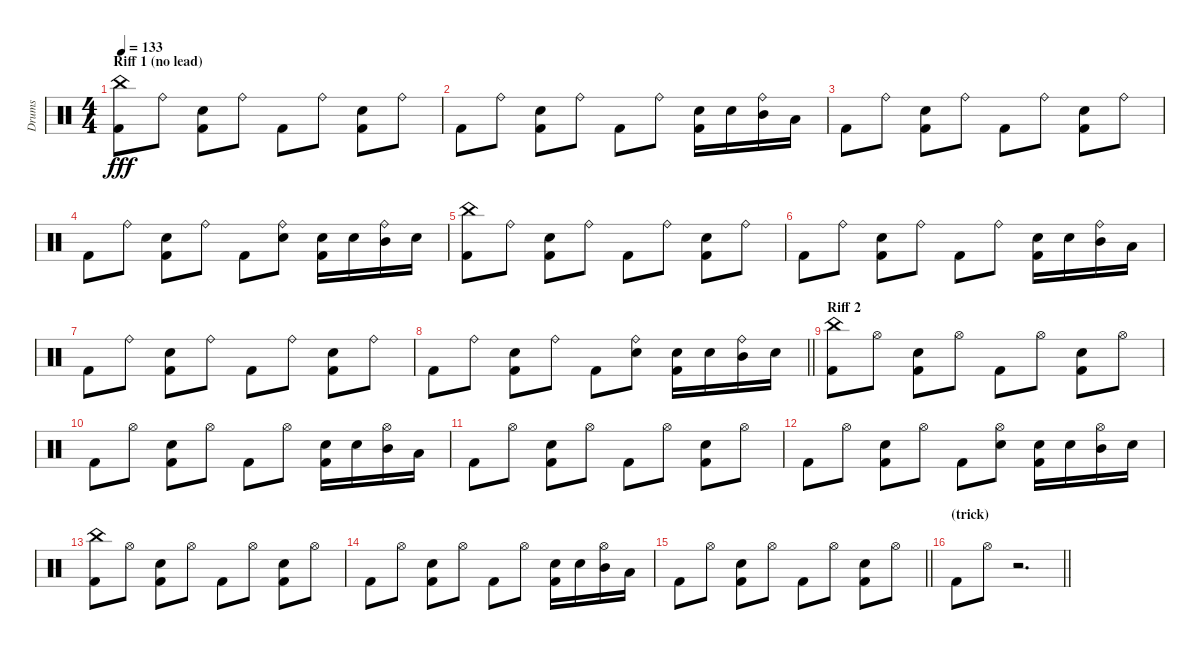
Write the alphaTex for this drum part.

\track ("Drums" "Drums") {instrument percussion}
\staff {score}
\articulation defaults
\ts (4 4)
\section ("" "Riff 1 (no lead)")
\tempo 133
\clef neutral
\ks c
("Kick (hit) 2" "China (hit)").8{dy fff} "Ride (bell)".8 ("Kick (hit) 2" "Snare (hit) 2").8 "Ride (bell)".8 "Kick (hit) 2".8 "Ride (bell)".8 ("Kick (hit) 2" "Snare (hit) 2").8 "Ride (bell)".8 |
"Kick (hit) 2".8 "Ride (bell)".8 ("Kick (hit) 2" "Snare (hit) 2").8 "Ride (bell)".8 "Kick (hit) 2".8 "Ride (bell)".8 ("Kick (hit) 2" "Snare (hit) 2").16 "Snare (hit) 2".16 ("Ride (bell)" "Mid Tom (hit)").16 "Low Tom (hit)".16 |
"Kick (hit) 2".8 "Ride (bell)".8 ("Kick (hit) 2" "Snare (hit) 2").8 "Ride (bell)".8 "Kick (hit) 2".8 "Ride (bell)".8 ("Kick (hit) 2" "Snare (hit) 2").8 "Ride (bell)".8 |
"Kick (hit) 2".8 "Ride (bell)".8 ("Kick (hit) 2" "Snare (hit) 2").8 "Ride (bell)".8 "Kick (hit) 2".8 ("Snare (hit) 2" "Ride (bell)").8 ("Kick (hit) 2" "Snare (hit) 2").16 "Snare (hit) 2".16 ("Ride (bell)" "Mid Tom (hit)").16 "Snare (hit) 2".16 |
("Kick (hit) 2" "China (hit)").8 "Ride (bell)".8 ("Kick (hit) 2" "Snare (hit) 2").8 "Ride (bell)".8 "Kick (hit) 2".8 "Ride (bell)".8 ("Kick (hit) 2" "Snare (hit) 2").8 "Ride (bell)".8 |
"Kick (hit) 2".8 "Ride (bell)".8 ("Kick (hit) 2" "Snare (hit) 2").8 "Ride (bell)".8 "Kick (hit) 2".8 "Ride (bell)".8 ("Kick (hit) 2" "Snare (hit) 2").16 "Snare (hit) 2".16 ("Ride (bell)" "Mid Tom (hit)").16 "Low Tom (hit)".16 |
"Kick (hit) 2".8 "Ride (bell)".8 ("Kick (hit) 2" "Snare (hit) 2").8 "Ride (bell)".8 "Kick (hit) 2".8 "Ride (bell)".8 ("Kick (hit) 2" "Snare (hit) 2").8 "Ride (bell)".8 |
\barLineRight lightlight "Kick (hit) 2".8 "Ride (bell)".8
("Kick (hit) 2" "Snare (hit) 2").8 "Ride (bell)".8 "Kick (hit) 2".8 ("Snare (hit) 2" "Ride (bell)").8 ("Kick (hit) 2" "Snare (hit) 2").16 "Snare (hit) 2".16 ("Ride (bell)" "Mid Tom (hit)").16 "Snare (hit) 2".16 |
\section ("" "Riff 2")
("Kick (hit) 2" "China (hit)").8 "Hi-Hat (open)".8 ("Kick (hit) 2" "Snare (hit) 2").8 "Hi-Hat (open)".8 "Kick (hit) 2".8 "Hi-Hat (open)".8 ("Kick (hit) 2" "Snare (hit) 2").8 "Hi-Hat (open)".8 |
"Kick (hit) 2".8 "Hi-Hat (open)".8 ("Kick (hit) 2" "Snare (hit) 2").8 "Hi-Hat (open)".8 "Kick (hit) 2".8 "Hi-Hat (open)".8 ("Kick (hit) 2" "Snare (hit) 2").16 "Snare (hit) 2".16 ("Hi-Hat (open)" "Mid Tom (hit)").16 "Low Tom (hit)".16 |
"Kick (hit) 2".8 "Hi-Hat (open)".8 ("Kick (hit) 2" "Snare (hit) 2").8 "Hi-Hat (open)".8 "Kick (hit) 2".8 "Hi-Hat (open)".8 ("Kick (hit) 2" "Snare (hit) 2").8 "Hi-Hat (open)".8 |
"Kick (hit) 2".8 "Hi-Hat (open)".8 ("Kick (hit) 2" "Snare (hit) 2").8 "Hi-Hat (open)".8 "Kick (hit) 2".8 ("Snare (hit) 2" "Hi-Hat (open)").8 ("Kick (hit) 2" "Snare (hit) 2").16 "Snare (hit) 2".16 ("Hi-Hat (open)" "Mid Tom (hit)").16 "Snare (hit) 2".16 |
("Kick (hit) 2" "China (hit)").8 "Hi-Hat (open)".8 ("Kick (hit) 2" "Snare (hit) 2").8 "Hi-Hat (open)".8 "Kick (hit) 2".8 "Hi-Hat (open)".8 ("Kick (hit) 2" "Snare (hit) 2").8 "Hi-Hat (open)".8 |
"Kick (hit) 2".8 "Hi-Hat (open)".8 ("Kick (hit) 2" "Snare (hit) 2").8 "Hi-Hat (open)".8 "Kick (hit) 2".8 "Hi-Hat (open)".8 ("Kick (hit) 2" "Snare (hit) 2").16 "Snare (hit) 2".16 ("Hi-Hat (open)" "Mid Tom (hit)").16 "Low Tom (hit)".16 |
\barLineRight lightlight "Kick (hit) 2".8 "Hi-Hat (open)".8
("Kick (hit) 2" "Snare (hit) 2").8 "Hi-Hat (open)".8 "Kick (hit) 2".8 "Hi-Hat (open)".8 ("Kick (hit) 2" "Snare (hit) 2").8 "Hi-Hat (open)".8 |
\section ("" "(trick)")
\barLineRight lightlight "Kick (hit) 2".8 "Hi-Hat (open)".8
r.2{d}
